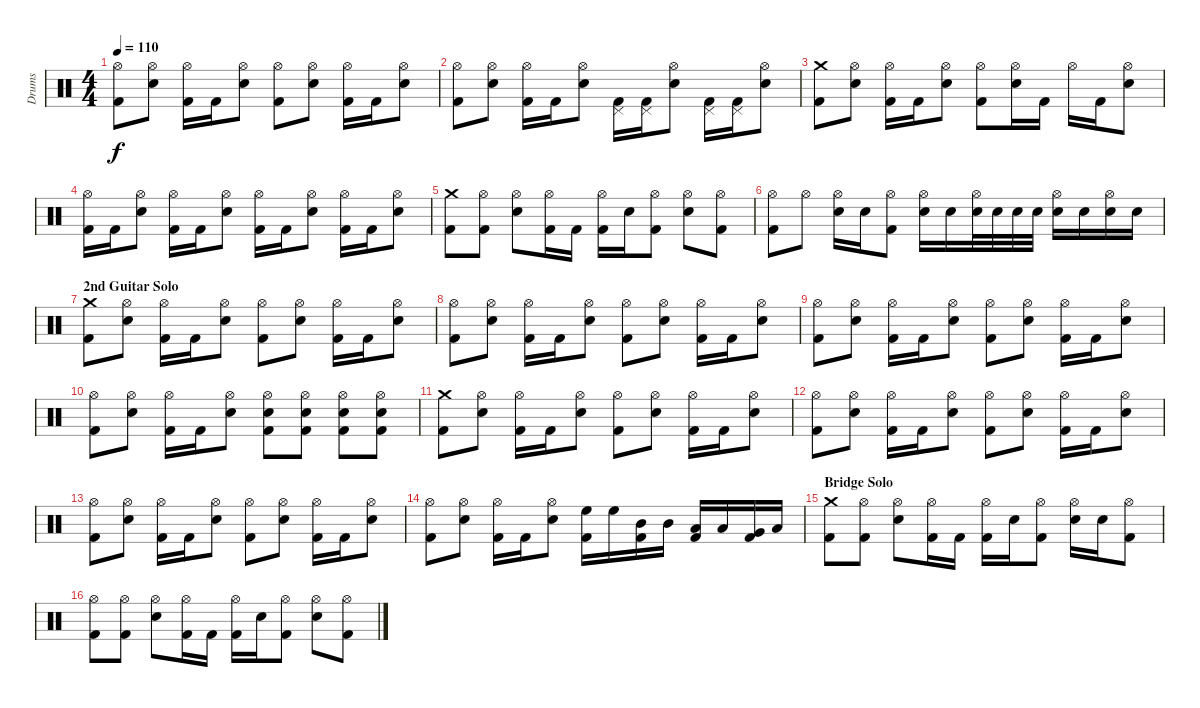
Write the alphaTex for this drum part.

\track ("Drums" "Drums") {instrument percussion}
\staff {score}
\articulation defaults
\ts (4 4)
\tempo 110
\clef neutral
\ks c
("Hi-Hat (open)" "Kick (hit) 2").8{dy f} ("Hi-Hat (open)" "Electric Snare (hit)").8 ("Hi-Hat (open)" "Kick (hit) 2").16 "Kick (hit) 2".16 ("Hi-Hat (open)" "Electric Snare (hit)").8 ("Hi-Hat (open)" "Kick (hit) 2").8 ("Hi-Hat (open)" "Electric Snare (hit)").8 ("Hi-Hat (open)" "Kick (hit) 2").16 "Kick (hit) 2".16 ("Hi-Hat (open)" "Electric Snare (hit)").8 |
("Hi-Hat (open)" "Kick (hit) 2").8 ("Hi-Hat (open)" "Electric Snare (hit)").8 ("Hi-Hat (open)" "Kick (hit) 2").16 "Kick (hit) 2".16 ("Hi-Hat (open)" "Electric Snare (hit)").8 ("Pedal Hi-Hat (hit)" "Kick (hit) 2").16 ("Pedal Hi-Hat (hit)" "Kick (hit) 2").16 ("Hi-Hat (open)" "Electric Snare (hit)").8 ("Pedal Hi-Hat (hit)" "Kick (hit) 2").16 ("Pedal Hi-Hat (hit)" "Kick (hit) 2").16 ("Hi-Hat (open)" "Electric Snare (hit)").8 |
("Crash medium (hit)" "Kick (hit) 2").8 ("Hi-Hat (open)" "Electric Snare (hit)").8 ("Hi-Hat (open)" "Kick (hit) 2").16 "Kick (hit) 2".16 ("Hi-Hat (open)" "Electric Snare (hit)").8 ("Hi-Hat (open)" "Kick (hit) 2").8 ("Hi-Hat (open)" "Electric Snare (hit)").16 "Kick (hit) 2".16 "Hi-Hat (open)".16 "Kick (hit) 2".16 ("Hi-Hat (open)" "Electric Snare (hit)").8 |
("Hi-Hat (open)" "Kick (hit) 2").16 "Kick (hit) 2".16 ("Hi-Hat (open)" "Electric Snare (hit)").8 ("Hi-Hat (open)" "Kick (hit) 2").16 "Kick (hit) 2".16 ("Hi-Hat (open)" "Electric Snare (hit)").8 ("Hi-Hat (open)" "Kick (hit) 2").16 "Kick (hit) 2".16 ("Hi-Hat (open)" "Electric Snare (hit)").8 ("Hi-Hat (open)" "Kick (hit) 2").16 "Kick (hit) 2".16 ("Hi-Hat (open)" "Electric Snare (hit)").8 |
("Crash medium (hit)" "Kick (hit) 2").8 ("Hi-Hat (open)" "Kick (hit) 2").8 ("Hi-Hat (open)" "Electric Snare (hit)").8 ("Hi-Hat (open)" "Kick (hit) 2").16 "Kick (hit) 2".16 ("Hi-Hat (open)" "Kick (hit) 2").16 "Electric Snare (hit)".16 ("Hi-Hat (open)" "Kick (hit) 2").8 ("Hi-Hat (open)" "Electric Snare (hit)").8 ("Hi-Hat (open)" "Kick (hit) 2").8 |
("Hi-Hat (open)" "Kick (hit) 2").8 "Hi-Hat (open)".8 ("Hi-Hat (open)" "Electric Snare (hit)").16 "Electric Snare (hit)".16 ("Hi-Hat (open)" "Kick (hit) 2").8 ("Hi-Hat (open)" "Electric Snare (hit)").16 "Electric Snare (hit)".16 ("Hi-Hat (open)" "Electric Snare (hit)").32 "Electric Snare (hit)".32 "Electric Snare (hit)".32 "Electric Snare (hit)".32 ("Hi-Hat (open)" "Electric Snare (hit)").16 "Electric Snare (hit)".16 ("Hi-Hat (open)" "Electric Snare (hit)").16 "Electric Snare (hit)".16 |
\section ("" "2nd Guitar Solo")
("Crash medium (hit)" "Kick (hit) 2").8 ("Hi-Hat (open)" "Electric Snare (hit)").8 ("Hi-Hat (open)" "Kick (hit) 2").16 "Kick (hit) 2".16 ("Hi-Hat (open)" "Electric Snare (hit)").8 ("Hi-Hat (open)" "Kick (hit) 2").8 ("Hi-Hat (open)" "Electric Snare (hit)").8 ("Hi-Hat (open)" "Kick (hit) 2").16 "Kick (hit) 2".16 ("Hi-Hat (open)" "Electric Snare (hit)").8 |
("Hi-Hat (open)" "Kick (hit) 2").8 ("Hi-Hat (open)" "Electric Snare (hit)").8 ("Hi-Hat (open)" "Kick (hit) 2").16 "Kick (hit) 2".16 ("Hi-Hat (open)" "Electric Snare (hit)").8 ("Hi-Hat (open)" "Kick (hit) 2").8 ("Hi-Hat (open)" "Electric Snare (hit)").8 ("Hi-Hat (open)" "Kick (hit) 2").16 "Kick (hit) 2".16 ("Hi-Hat (open)" "Electric Snare (hit)").8 |
("Hi-Hat (open)" "Kick (hit) 2").8 ("Hi-Hat (open)" "Electric Snare (hit)").8 ("Hi-Hat (open)" "Kick (hit) 2").16 "Kick (hit) 2".16 ("Hi-Hat (open)" "Electric Snare (hit)").8 ("Hi-Hat (open)" "Kick (hit) 2").8 ("Hi-Hat (open)" "Electric Snare (hit)").8 ("Hi-Hat (open)" "Kick (hit) 2").16 "Kick (hit) 2".16 ("Hi-Hat (open)" "Electric Snare (hit)").8 |
("Hi-Hat (open)" "Kick (hit) 2").8 ("Hi-Hat (open)" "Electric Snare (hit)").8 ("Hi-Hat (open)" "Kick (hit) 2").16 "Kick (hit) 2".16 ("Hi-Hat (open)" "Electric Snare (hit)").8 ("Hi-Hat (open)" "Electric Snare (hit)" "Kick (hit) 2").8 ("Hi-Hat (open)" "Electric Snare (hit)" "Kick (hit) 2").8 ("Hi-Hat (open)" "Electric Snare (hit)" "Kick (hit) 2").8 ("Hi-Hat (open)" "Electric Snare (hit)" "Kick (hit) 2").8 |
("Crash medium (hit)" "Kick (hit) 2").8 ("Hi-Hat (open)" "Electric Snare (hit)").8 ("Hi-Hat (open)" "Kick (hit) 2").16 "Kick (hit) 2".16 ("Hi-Hat (open)" "Electric Snare (hit)").8 ("Hi-Hat (open)" "Kick (hit) 2").8 ("Hi-Hat (open)" "Electric Snare (hit)").8 ("Hi-Hat (open)" "Kick (hit) 2").16 "Kick (hit) 2".16 ("Hi-Hat (open)" "Electric Snare (hit)").8 |
("Hi-Hat (open)" "Kick (hit) 2").8 ("Hi-Hat (open)" "Electric Snare (hit)").8 ("Hi-Hat (open)" "Kick (hit) 2").16 "Kick (hit) 2".16 ("Hi-Hat (open)" "Electric Snare (hit)").8 ("Hi-Hat (open)" "Kick (hit) 2").8 ("Hi-Hat (open)" "Electric Snare (hit)").8 ("Hi-Hat (open)" "Kick (hit) 2").16 "Kick (hit) 2".16 ("Hi-Hat (open)" "Electric Snare (hit)").8 |
("Hi-Hat (open)" "Kick (hit) 2").8 ("Hi-Hat (open)" "Electric Snare (hit)").8 ("Hi-Hat (open)" "Kick (hit) 2").16 "Kick (hit) 2".16 ("Hi-Hat (open)" "Electric Snare (hit)").8 ("Hi-Hat (open)" "Kick (hit) 2").8 ("Hi-Hat (open)" "Electric Snare (hit)").8 ("Hi-Hat (open)" "Kick (hit) 2").16 "Kick (hit) 2".16 ("Hi-Hat (open)" "Electric Snare (hit)").8 |
("Hi-Hat (open)" "Kick (hit) 2").8 ("Hi-Hat (open)" "Electric Snare (hit)").8 ("Hi-Hat (open)" "Kick (hit) 2").16 "Kick (hit) 2".16 ("Hi-Hat (open)" "Electric Snare (hit)").8 ("High Floor Tom (hit)" "Kick (hit) 2").16 "High Floor Tom (hit)".16 ("Mid Tom (hit)" "Kick (hit) 2").16 "Mid Tom (hit)".16 ("Low Tom (hit)" "Kick (hit) 2").16 "Low Tom (hit)".16 ("Very Low Tom (hit)" "Kick (hit) 2").16 "Low Floor Tom (hit)".16 |
\section ("" "Bridge Solo")
("Crash medium (hit)" "Kick (hit) 2").8 ("Hi-Hat (open)" "Kick (hit) 2").8 ("Hi-Hat (open)" "Electric Snare (hit)").8 ("Hi-Hat (open)" "Kick (hit) 2").16 "Kick (hit) 2".16 ("Hi-Hat (open)" "Kick (hit) 2").16 "Electric Snare (hit)".16 ("Hi-Hat (open)" "Kick (hit) 2").8 ("Hi-Hat (open)" "Electric Snare (hit)").16 "Electric Snare (hit)".16 ("Hi-Hat (open)" "Kick (hit) 2").8 |
("Hi-Hat (open)" "Kick (hit) 2").8 ("Hi-Hat (open)" "Kick (hit) 2").8 ("Hi-Hat (open)" "Electric Snare (hit)").8 ("Hi-Hat (open)" "Kick (hit) 2").16 "Kick (hit) 2".16 ("Hi-Hat (open)" "Kick (hit) 2").16 "Electric Snare (hit)".16 ("Hi-Hat (open)" "Kick (hit) 2").8 ("Hi-Hat (open)" "Electric Snare (hit)").8 ("Hi-Hat (open)" "Kick (hit) 2").8
